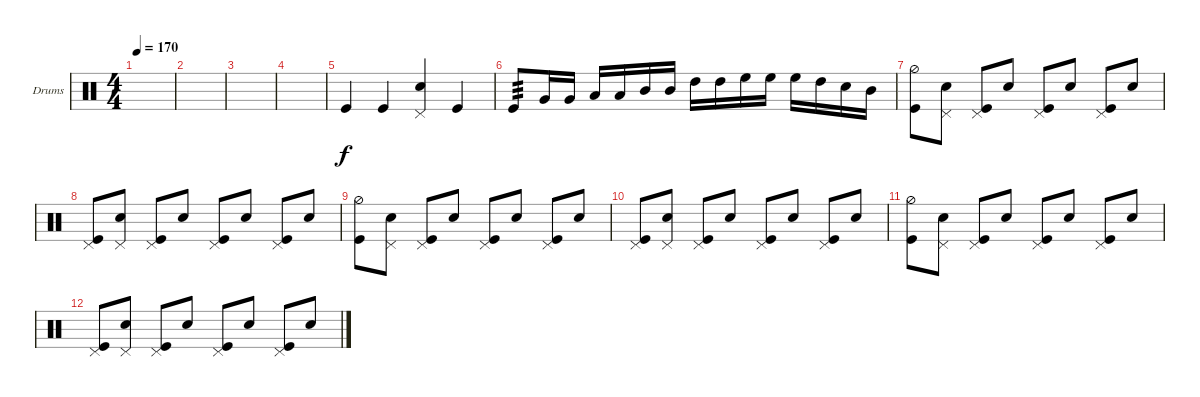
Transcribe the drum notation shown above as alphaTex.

\bracketExtendMode groupsimilarinstruments
\firstSystemTrackNameOrientation horizontal
\otherSystemsTrackNameOrientation horizontal
\track ("Danya" "Drums") {mute instrument percussion}
\staff {score}
\articulation defaults
\ts (4 4)
\tempo 170
\clef neutral
\ks c
|
|
|
|
"Kick (hit)".4 "Kick (hit)".4 ("Snare (hit) 2" "Pedal Hi-Hat (hit)").4 "Kick (hit)".4 |
"Kick (hit)".8{tp 3} "Very Low Tom (hit)".16 "Very Low Tom (hit)".16 "Low Tom (hit)".16 "Low Tom (hit)".16 "Mid Tom (hit)".16 "Mid Tom (hit)".16 "High Tom (hit)".16 "High Tom (hit)".16 "High Floor Tom (hit)".16 "High Floor Tom (hit)".16 "High Floor Tom (hit)".16 "High Tom (hit)".16 "Snare (hit) 2".16 "Mid Tom (hit)".16 |
("Kick (hit)" "Hi-Hat (half)").8 ("Snare (hit) 2" "Pedal Hi-Hat (hit)").8 ("Kick (hit)" "Pedal Hi-Hat (hit)").8 "Snare (hit) 2".8 ("Pedal Hi-Hat (hit)" "Kick (hit)").8 "Snare (hit) 2".8 ("Kick (hit)" "Pedal Hi-Hat (hit)").8 "Snare (hit) 2".8 |
("Kick (hit)" "Pedal Hi-Hat (hit)").8 ("Snare (hit) 2" "Pedal Hi-Hat (hit)").8 ("Kick (hit)" "Pedal Hi-Hat (hit)").8 "Snare (hit) 2".8 ("Pedal Hi-Hat (hit)" "Kick (hit)").8 "Snare (hit) 2".8 ("Kick (hit)" "Pedal Hi-Hat (hit)").8 "Snare (hit) 2".8 |
("Kick (hit)" "Hi-Hat (half)").8 ("Snare (hit) 2" "Pedal Hi-Hat (hit)").8 ("Kick (hit)" "Pedal Hi-Hat (hit)").8 "Snare (hit) 2".8 ("Pedal Hi-Hat (hit)" "Kick (hit)").8 "Snare (hit) 2".8 ("Kick (hit)" "Pedal Hi-Hat (hit)").8 "Snare (hit) 2".8 |
("Kick (hit)" "Pedal Hi-Hat (hit)").8 ("Snare (hit) 2" "Pedal Hi-Hat (hit)").8 ("Kick (hit)" "Pedal Hi-Hat (hit)").8 "Snare (hit) 2".8 ("Pedal Hi-Hat (hit)" "Kick (hit)").8 "Snare (hit) 2".8 ("Kick (hit)" "Pedal Hi-Hat (hit)").8 "Snare (hit) 2".8 |
("Kick (hit)" "Hi-Hat (half)").8 ("Snare (hit) 2" "Pedal Hi-Hat (hit)").8 ("Kick (hit)" "Pedal Hi-Hat (hit)").8 "Snare (hit) 2".8 ("Pedal Hi-Hat (hit)" "Kick (hit)").8 "Snare (hit) 2".8 ("Kick (hit)" "Pedal Hi-Hat (hit)").8 "Snare (hit) 2".8 |
("Kick (hit)" "Pedal Hi-Hat (hit)").8 ("Snare (hit) 2" "Pedal Hi-Hat (hit)").8 ("Kick (hit)" "Pedal Hi-Hat (hit)").8 "Snare (hit) 2".8 ("Pedal Hi-Hat (hit)" "Kick (hit)").8 "Snare (hit) 2".8 ("Kick (hit)" "Pedal Hi-Hat (hit)").8 "Snare (hit) 2".8
